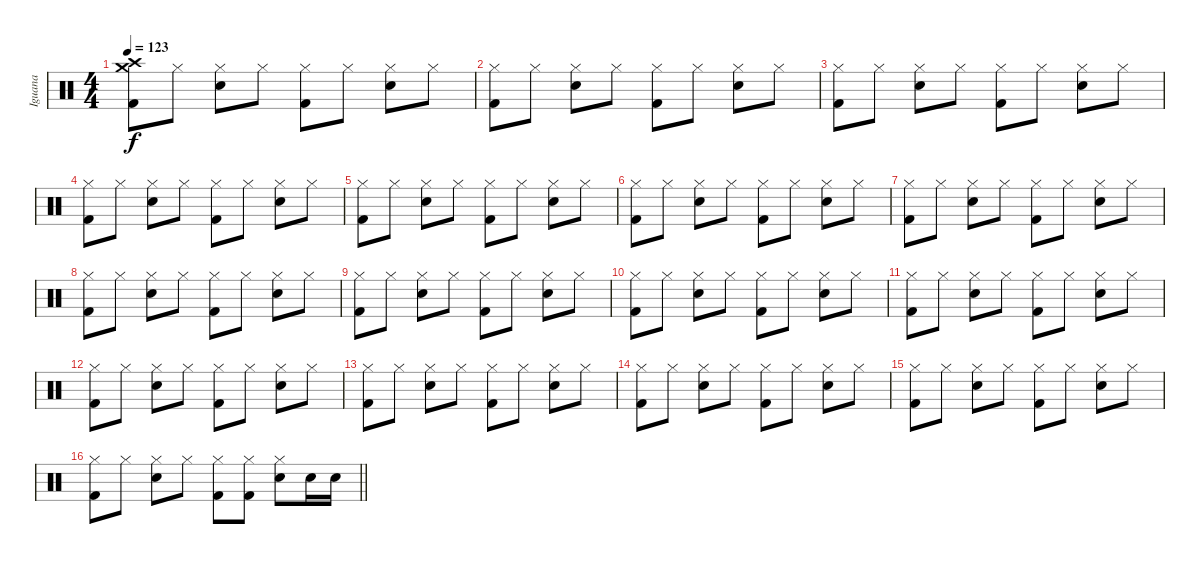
\track ("Iguana" "Iguana") {instrument percussion}
\staff {score}
\articulation defaults
\ts (4 4)
\tempo 123
\clef neutral
\ks c
("Crash medium (hit)" "Crash high (hit)" "Kick (hit) 2").8{dy f} "Hi-Hat (closed)".8 ("Hi-Hat (closed)" "Snare (hit) 2").8 "Hi-Hat (closed)".8 ("Hi-Hat (closed)" "Kick (hit) 2").8 "Hi-Hat (closed)".8 ("Hi-Hat (closed)" "Snare (hit) 2").8 "Hi-Hat (closed)".8 |
("Hi-Hat (closed)" "Kick (hit) 2").8 "Hi-Hat (closed)".8 ("Hi-Hat (closed)" "Snare (hit) 2").8 "Hi-Hat (closed)".8 ("Hi-Hat (closed)" "Kick (hit) 2").8 "Hi-Hat (closed)".8 ("Hi-Hat (closed)" "Snare (hit) 2").8 "Hi-Hat (closed)".8 |
("Hi-Hat (closed)" "Kick (hit) 2").8 "Hi-Hat (closed)".8 ("Hi-Hat (closed)" "Snare (hit) 2").8 "Hi-Hat (closed)".8 ("Hi-Hat (closed)" "Kick (hit) 2").8 "Hi-Hat (closed)".8 ("Hi-Hat (closed)" "Snare (hit) 2").8 "Hi-Hat (closed)".8 |
("Hi-Hat (closed)" "Kick (hit) 2").8 "Hi-Hat (closed)".8 ("Hi-Hat (closed)" "Snare (hit) 2").8 "Hi-Hat (closed)".8 ("Hi-Hat (closed)" "Kick (hit) 2").8 "Hi-Hat (closed)".8 ("Hi-Hat (closed)" "Snare (hit) 2").8 "Hi-Hat (closed)".8 |
("Hi-Hat (closed)" "Kick (hit) 2").8 "Hi-Hat (closed)".8 ("Hi-Hat (closed)" "Snare (hit) 2").8 "Hi-Hat (closed)".8 ("Hi-Hat (closed)" "Kick (hit) 2").8 "Hi-Hat (closed)".8 ("Hi-Hat (closed)" "Snare (hit) 2").8 "Hi-Hat (closed)".8 |
("Hi-Hat (closed)" "Kick (hit) 2").8 "Hi-Hat (closed)".8 ("Hi-Hat (closed)" "Snare (hit) 2").8 "Hi-Hat (closed)".8 ("Hi-Hat (closed)" "Kick (hit) 2").8 "Hi-Hat (closed)".8 ("Hi-Hat (closed)" "Snare (hit) 2").8 "Hi-Hat (closed)".8 |
("Hi-Hat (closed)" "Kick (hit) 2").8 "Hi-Hat (closed)".8 ("Hi-Hat (closed)" "Snare (hit) 2").8 "Hi-Hat (closed)".8 ("Hi-Hat (closed)" "Kick (hit) 2").8 "Hi-Hat (closed)".8 ("Hi-Hat (closed)" "Snare (hit) 2").8 "Hi-Hat (closed)".8 |
("Hi-Hat (closed)" "Kick (hit) 2").8 "Hi-Hat (closed)".8 ("Hi-Hat (closed)" "Snare (hit) 2").8 "Hi-Hat (closed)".8 ("Hi-Hat (closed)" "Kick (hit) 2").8 "Hi-Hat (closed)".8 ("Hi-Hat (closed)" "Snare (hit) 2").8 "Hi-Hat (closed)".8 |
("Hi-Hat (closed)" "Kick (hit) 2").8 "Hi-Hat (closed)".8 ("Hi-Hat (closed)" "Snare (hit) 2").8 "Hi-Hat (closed)".8 ("Hi-Hat (closed)" "Kick (hit) 2").8 "Hi-Hat (closed)".8 ("Hi-Hat (closed)" "Snare (hit) 2").8 "Hi-Hat (closed)".8 |
("Hi-Hat (closed)" "Kick (hit) 2").8 "Hi-Hat (closed)".8 ("Hi-Hat (closed)" "Snare (hit) 2").8 "Hi-Hat (closed)".8 ("Hi-Hat (closed)" "Kick (hit) 2").8 "Hi-Hat (closed)".8 ("Hi-Hat (closed)" "Snare (hit) 2").8 "Hi-Hat (closed)".8 |
("Hi-Hat (closed)" "Kick (hit) 2").8 "Hi-Hat (closed)".8 ("Hi-Hat (closed)" "Snare (hit) 2").8 "Hi-Hat (closed)".8 ("Hi-Hat (closed)" "Kick (hit) 2").8 "Hi-Hat (closed)".8 ("Hi-Hat (closed)" "Snare (hit) 2").8 "Hi-Hat (closed)".8 |
("Hi-Hat (closed)" "Kick (hit) 2").8 "Hi-Hat (closed)".8 ("Hi-Hat (closed)" "Snare (hit) 2").8 "Hi-Hat (closed)".8 ("Hi-Hat (closed)" "Kick (hit) 2").8 "Hi-Hat (closed)".8 ("Hi-Hat (closed)" "Snare (hit) 2").8 "Hi-Hat (closed)".8 |
("Hi-Hat (closed)" "Kick (hit) 2").8 "Hi-Hat (closed)".8 ("Hi-Hat (closed)" "Snare (hit) 2").8 "Hi-Hat (closed)".8 ("Hi-Hat (closed)" "Kick (hit) 2").8 "Hi-Hat (closed)".8 ("Hi-Hat (closed)" "Snare (hit) 2").8 "Hi-Hat (closed)".8 |
("Hi-Hat (closed)" "Kick (hit) 2").8 "Hi-Hat (closed)".8 ("Hi-Hat (closed)" "Snare (hit) 2").8 "Hi-Hat (closed)".8 ("Hi-Hat (closed)" "Kick (hit) 2").8 "Hi-Hat (closed)".8 ("Hi-Hat (closed)" "Snare (hit) 2").8 "Hi-Hat (closed)".8 |
("Hi-Hat (closed)" "Kick (hit) 2").8 "Hi-Hat (closed)".8 ("Hi-Hat (closed)" "Snare (hit) 2").8 "Hi-Hat (closed)".8 ("Hi-Hat (closed)" "Kick (hit) 2").8 "Hi-Hat (closed)".8 ("Hi-Hat (closed)" "Snare (hit) 2").8 "Hi-Hat (closed)".8 |
\barLineRight lightlight
("Hi-Hat (closed)" "Kick (hit) 2").8 "Hi-Hat (closed)".8 ("Hi-Hat (closed)" "Snare (hit) 2").8 "Hi-Hat (closed)".8 ("Hi-Hat (closed)" "Kick (hit) 2").8 ("Hi-Hat (closed)" "Kick (hit) 2").8 ("Hi-Hat (closed)" "Snare (hit) 2").8 "Snare (hit) 2".16 "Snare (hit) 2".16
